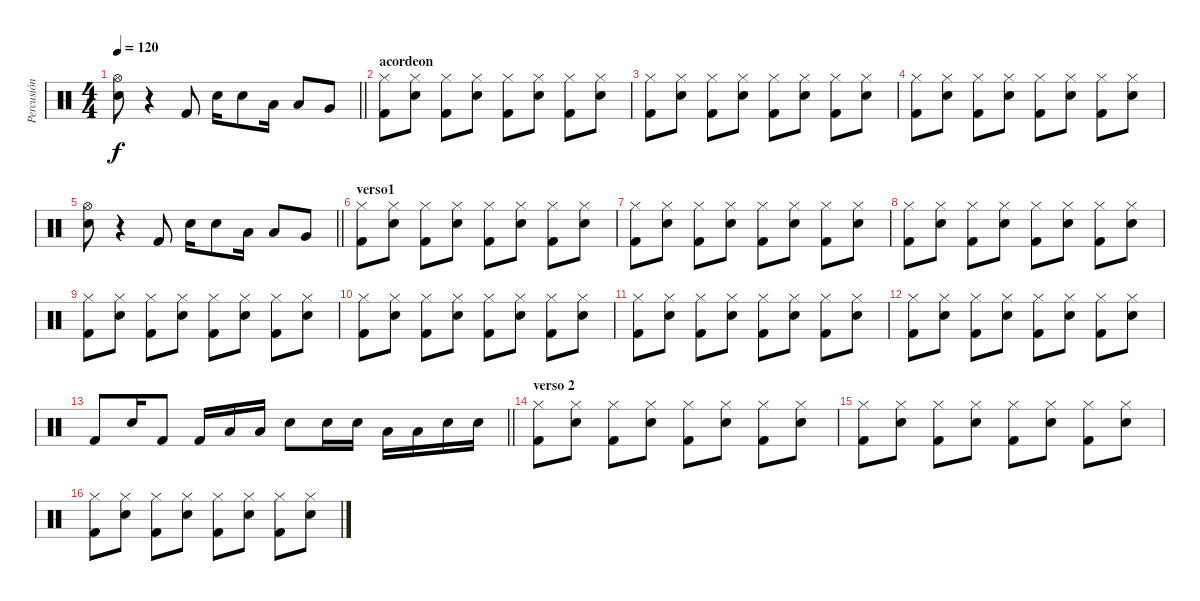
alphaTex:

\track ("Percusión" "Percusión") {instrument percussion}
\staff {score}
\articulation defaults
\ts (4 4)
\tempo 120
\clef neutral
\barLineRight lightlight
\ks c
("Hi-Hat (open)" "Electric Snare (hit)").8{dy f} r.4 "Kick (hit) 2".8 "Electric Snare (hit)".16 "Electric Snare (hit)".8 "Low Tom (hit)".16 "Low Tom (hit)".8 "Very Low Tom (hit)".8 |
\section ("" "acordeon")
("Hi-Hat (closed)" "Kick (hit) 2").8 ("Hi-Hat (closed)" "Electric Snare (hit)").8 ("Hi-Hat (closed)" "Kick (hit) 2").8 ("Hi-Hat (closed)" "Electric Snare (hit)").8 ("Hi-Hat (closed)" "Kick (hit) 2").8 ("Hi-Hat (closed)" "Electric Snare (hit)").8 ("Hi-Hat (closed)" "Kick (hit) 2").8 ("Hi-Hat (closed)" "Electric Snare (hit)").8 |
("Hi-Hat (closed)" "Kick (hit) 2").8 ("Hi-Hat (closed)" "Electric Snare (hit)").8 ("Hi-Hat (closed)" "Kick (hit) 2").8 ("Hi-Hat (closed)" "Electric Snare (hit)").8 ("Hi-Hat (closed)" "Kick (hit) 2").8 ("Hi-Hat (closed)" "Electric Snare (hit)").8 ("Hi-Hat (closed)" "Kick (hit) 2").8 ("Hi-Hat (closed)" "Electric Snare (hit)").8 |
("Hi-Hat (closed)" "Kick (hit) 2").8 ("Hi-Hat (closed)" "Electric Snare (hit)").8 ("Hi-Hat (closed)" "Kick (hit) 2").8 ("Hi-Hat (closed)" "Electric Snare (hit)").8 ("Hi-Hat (closed)" "Kick (hit) 2").8 ("Hi-Hat (closed)" "Electric Snare (hit)").8 ("Hi-Hat (closed)" "Kick (hit) 2").8 ("Hi-Hat (closed)" "Electric Snare (hit)").8 |
\barLineRight lightlight
("Hi-Hat (open)" "Electric Snare (hit)").8 r.4 "Kick (hit) 2".8 "Electric Snare (hit)".16 "Electric Snare (hit)".8 "Low Tom (hit)".16 "Low Tom (hit)".8 "Very Low Tom (hit)".8 |
\section ("" "verso1")
("Hi-Hat (closed)" "Kick (hit) 2").8 ("Hi-Hat (closed)" "Electric Snare (hit)").8 ("Hi-Hat (closed)" "Kick (hit) 2").8 ("Hi-Hat (closed)" "Electric Snare (hit)").8 ("Hi-Hat (closed)" "Kick (hit) 2").8 ("Hi-Hat (closed)" "Electric Snare (hit)").8 ("Hi-Hat (closed)" "Kick (hit) 2").8 ("Hi-Hat (closed)" "Electric Snare (hit)").8 |
("Hi-Hat (closed)" "Kick (hit) 2").8 ("Hi-Hat (closed)" "Electric Snare (hit)").8 ("Hi-Hat (closed)" "Kick (hit) 2").8 ("Hi-Hat (closed)" "Electric Snare (hit)").8 ("Hi-Hat (closed)" "Kick (hit) 2").8 ("Hi-Hat (closed)" "Electric Snare (hit)").8 ("Hi-Hat (closed)" "Kick (hit) 2").8 ("Hi-Hat (closed)" "Electric Snare (hit)").8 |
("Hi-Hat (closed)" "Kick (hit) 2").8 ("Hi-Hat (closed)" "Electric Snare (hit)").8 ("Hi-Hat (closed)" "Kick (hit) 2").8 ("Hi-Hat (closed)" "Electric Snare (hit)").8 ("Hi-Hat (closed)" "Kick (hit) 2").8 ("Hi-Hat (closed)" "Electric Snare (hit)").8 ("Hi-Hat (closed)" "Kick (hit) 2").8 ("Hi-Hat (closed)" "Electric Snare (hit)").8 |
("Hi-Hat (closed)" "Kick (hit) 2").8 ("Hi-Hat (closed)" "Electric Snare (hit)").8 ("Hi-Hat (closed)" "Kick (hit) 2").8 ("Hi-Hat (closed)" "Electric Snare (hit)").8 ("Hi-Hat (closed)" "Kick (hit) 2").8 ("Hi-Hat (closed)" "Electric Snare (hit)").8 ("Hi-Hat (closed)" "Kick (hit) 2").8 ("Hi-Hat (closed)" "Electric Snare (hit)").8 |
("Hi-Hat (closed)" "Kick (hit) 2").8 ("Hi-Hat (closed)" "Electric Snare (hit)").8 ("Hi-Hat (closed)" "Kick (hit) 2").8 ("Hi-Hat (closed)" "Electric Snare (hit)").8 ("Hi-Hat (closed)" "Kick (hit) 2").8 ("Hi-Hat (closed)" "Electric Snare (hit)").8 ("Hi-Hat (closed)" "Kick (hit) 2").8 ("Hi-Hat (closed)" "Electric Snare (hit)").8 |
("Hi-Hat (closed)" "Kick (hit) 2").8 ("Hi-Hat (closed)" "Electric Snare (hit)").8 ("Hi-Hat (closed)" "Kick (hit) 2").8 ("Hi-Hat (closed)" "Electric Snare (hit)").8 ("Hi-Hat (closed)" "Kick (hit) 2").8 ("Hi-Hat (closed)" "Electric Snare (hit)").8 ("Hi-Hat (closed)" "Kick (hit) 2").8 ("Hi-Hat (closed)" "Electric Snare (hit)").8 |
("Hi-Hat (closed)" "Kick (hit) 2").8 ("Hi-Hat (closed)" "Electric Snare (hit)").8 ("Hi-Hat (closed)" "Kick (hit) 2").8 ("Hi-Hat (closed)" "Electric Snare (hit)").8 ("Hi-Hat (closed)" "Kick (hit) 2").8 ("Hi-Hat (closed)" "Electric Snare (hit)").8 ("Hi-Hat (closed)" "Kick (hit) 2").8 ("Hi-Hat (closed)" "Electric Snare (hit)").8 |
\barLineRight lightlight "Kick (hit) 2".8 "Electric Snare (hit)".16 "Kick (hit) 2".8 "Kick (hit) 2".16 "Low Tom (hit)".16 "Low Tom (hit)".16 "Electric Snare (hit)".8 "Electric Snare (hit)".16 "Electric Snare (hit)".16 "Low Tom (hit)".16 "Low Tom (hit)".16 "Electric Snare (hit)".16 "Electric Snare (hit)".16
|
\section ("" "verso 2")
("Hi-Hat (closed)" "Kick (hit) 2").8 ("Hi-Hat (closed)" "Electric Snare (hit)").8 ("Hi-Hat (closed)" "Kick (hit) 2").8 ("Hi-Hat (closed)" "Electric Snare (hit)").8 ("Hi-Hat (closed)" "Kick (hit) 2").8 ("Hi-Hat (closed)" "Electric Snare (hit)").8 ("Hi-Hat (closed)" "Kick (hit) 2").8 ("Hi-Hat (closed)" "Electric Snare (hit)").8 |
("Hi-Hat (closed)" "Kick (hit) 2").8 ("Hi-Hat (closed)" "Electric Snare (hit)").8 ("Hi-Hat (closed)" "Kick (hit) 2").8 ("Hi-Hat (closed)" "Electric Snare (hit)").8 ("Hi-Hat (closed)" "Kick (hit) 2").8 ("Hi-Hat (closed)" "Electric Snare (hit)").8 ("Hi-Hat (closed)" "Kick (hit) 2").8 ("Hi-Hat (closed)" "Electric Snare (hit)").8 |
("Hi-Hat (closed)" "Kick (hit) 2").8 ("Hi-Hat (closed)" "Electric Snare (hit)").8 ("Hi-Hat (closed)" "Kick (hit) 2").8 ("Hi-Hat (closed)" "Electric Snare (hit)").8 ("Hi-Hat (closed)" "Kick (hit) 2").8 ("Hi-Hat (closed)" "Electric Snare (hit)").8 ("Hi-Hat (closed)" "Kick (hit) 2").8 ("Hi-Hat (closed)" "Electric Snare (hit)").8
